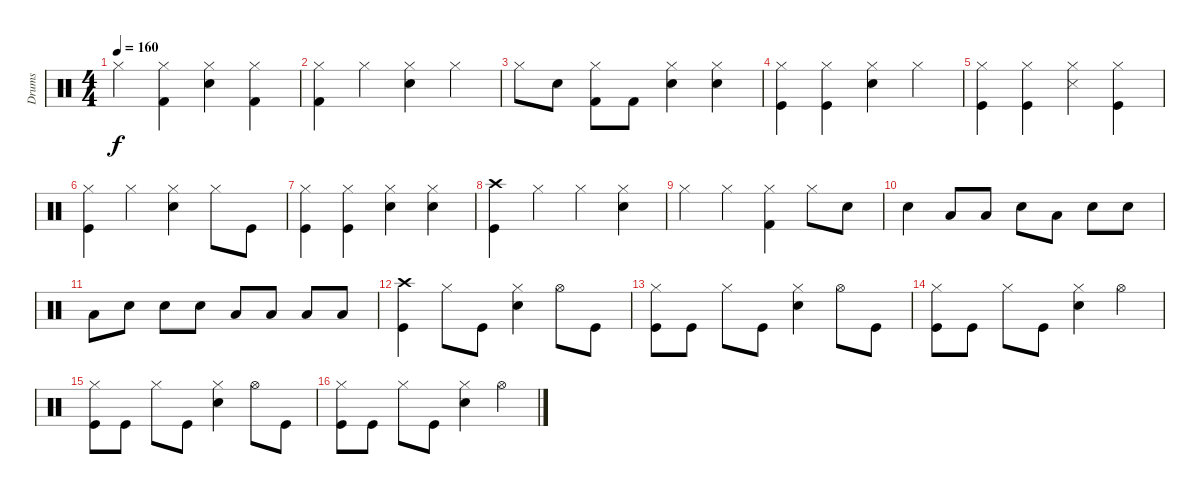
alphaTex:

\track ("Drums" "Drums") {instrument percussion}
\staff {score}
\articulation defaults
\ts (4 4)
\tempo 160
\clef neutral
\ks c "Hi-Hat (closed)".4{dy f}
("Hi-Hat (closed)" "Kick (hit) 2").4 ("Hi-Hat (closed)" "Snare (hit) 2").4 ("Hi-Hat (closed)" "Kick (hit) 2").4 |
("Kick (hit) 2" "Hi-Hat (closed)").4 "Hi-Hat (closed)".4 ("Snare (hit) 2" "Hi-Hat (closed)").4 "Hi-Hat (closed)".4 |
"Hi-Hat (closed)".8 "Snare (hit) 2".8 ("Kick (hit) 2" "Hi-Hat (closed)").8 "Kick (hit) 2".8 ("Snare (hit) 2" "Hi-Hat (closed)").4 ("Snare (hit) 2" "Hi-Hat (closed)").4 |
("Kick (hit)" "Hi-Hat (closed)").4 ("Kick (hit)" "Hi-Hat (closed)").4 ("Snare (hit) 2" "Hi-Hat (closed)").4 "Hi-Hat (closed)".4 |
("Kick (hit)" "Hi-Hat (closed)").4 ("Kick (hit)" "Hi-Hat (closed)").4 ("Snare (side stick) 3" "Hi-Hat (closed)").4 ("Kick (hit)" "Hi-Hat (closed)").4 |
("Kick (hit)" "Hi-Hat (closed)").4 "Hi-Hat (closed)".4 ("Snare (hit) 2" "Hi-Hat (closed)").4 "Hi-Hat (closed)".8 "Kick (hit)".8 |
("Kick (hit)" "Hi-Hat (closed)").4 ("Kick (hit)" "Hi-Hat (closed)").4 ("Snare (hit) 2" "Hi-Hat (closed)").4 ("Snare (hit) 2" "Hi-Hat (closed)").4 |
("Kick (hit)" "Crash high (hit)").4 "Hi-Hat (closed)".4 "Hi-Hat (closed)".4 ("Snare (hit) 2" "Hi-Hat (closed)").4 |
"Hi-Hat (closed)".4 "Hi-Hat (closed)".4 ("Hi-Hat (closed)" "Kick (hit) 2").4 "Hi-Hat (closed)".8 "Snare (hit) 2".8 |
"Snare (hit) 2".4 "Low Tom (hit)".8 "Low Tom (hit)".8 "Snare (hit) 2".8 "Low Tom (hit)".8 "Snare (hit) 2".8 "Snare (hit) 2".8 |
"Low Tom (hit)".8 "Snare (hit) 2".8 "Snare (hit) 2".8 "Snare (hit) 2".8 "Low Tom (hit)".8 "Low Tom (hit)".8 "Low Floor Tom (hit)".8 "Low Floor Tom (hit)".8 |
("Kick (hit)" "Crash high (hit)").4 "Hi-Hat (closed)".8 "Kick (hit)".8 ("Snare (hit) 2" "Hi-Hat (closed)").4 "Hi-Hat (open)".8 "Kick (hit)".8 |
("Hi-Hat (closed)" "Kick (hit)").8 "Kick (hit)".8 "Hi-Hat (closed)".8 "Kick (hit)".8 ("Snare (hit) 2" "Hi-Hat (closed)").4 "Hi-Hat (open)".8 "Kick (hit)".8 |
("Hi-Hat (closed)" "Kick (hit)").8 "Kick (hit)".8 "Hi-Hat (closed)".8 "Kick (hit)".8 ("Hi-Hat (closed)" "Snare (hit) 2").4 "Hi-Hat (open)".4 |
("Hi-Hat (closed)" "Kick (hit)").8 "Kick (hit)".8 "Hi-Hat (closed)".8 "Kick (hit)".8 ("Hi-Hat (closed)" "Snare (hit) 2").4 "Hi-Hat (open)".8 "Kick (hit)".8 |
("Hi-Hat (closed)" "Kick (hit)").8 "Kick (hit)".8 "Hi-Hat (closed)".8 "Kick (hit)".8 ("Hi-Hat (closed)" "Snare (hit) 2").4 "Hi-Hat (open)".4
